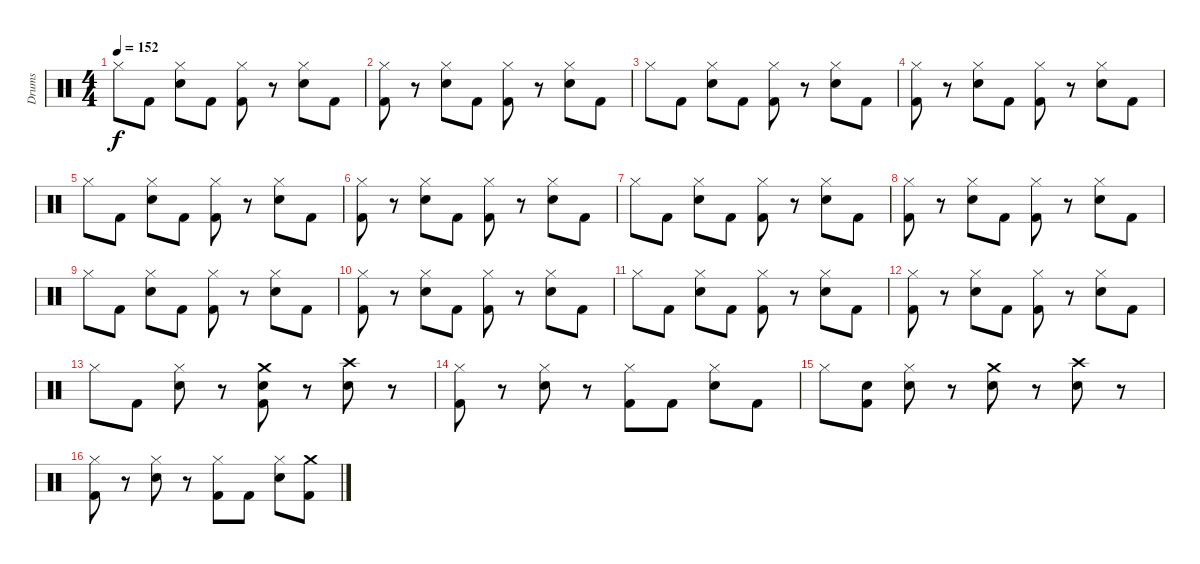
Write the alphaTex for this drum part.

\track ("Drums" "Drums") {instrument percussion}
\staff {score}
\articulation defaults
\ts (4 4)
\tempo 152
\clef neutral
\ks c "Hi-Hat (closed)".8{dy f} "Kick (hit) 2".8
("Electric Snare (hit)" "Hi-Hat (closed)").8 "Kick (hit) 2".8 ("Kick (hit) 2" "Hi-Hat (closed)").8 r.8 ("Electric Snare (hit)" "Hi-Hat (closed)").8 "Kick (hit) 2".8 |
("Kick (hit) 2" "Hi-Hat (closed)").8 r.8 ("Electric Snare (hit)" "Hi-Hat (closed)").8 "Kick (hit) 2".8 ("Kick (hit) 2" "Hi-Hat (closed)").8 r.8 ("Electric Snare (hit)" "Hi-Hat (closed)").8 "Kick (hit) 2".8 |
"Hi-Hat (closed)".8 "Kick (hit) 2".8 ("Electric Snare (hit)" "Hi-Hat (closed)").8 "Kick (hit) 2".8 ("Kick (hit) 2" "Hi-Hat (closed)").8 r.8 ("Electric Snare (hit)" "Hi-Hat (closed)").8 "Kick (hit) 2".8 |
("Kick (hit) 2" "Hi-Hat (closed)").8 r.8 ("Electric Snare (hit)" "Hi-Hat (closed)").8 "Kick (hit) 2".8 ("Kick (hit) 2" "Hi-Hat (closed)").8 r.8 ("Electric Snare (hit)" "Hi-Hat (closed)").8 "Kick (hit) 2".8 |
"Hi-Hat (closed)".8 "Kick (hit) 2".8 ("Electric Snare (hit)" "Hi-Hat (closed)").8 "Kick (hit) 2".8 ("Kick (hit) 2" "Hi-Hat (closed)").8 r.8 ("Electric Snare (hit)" "Hi-Hat (closed)").8 "Kick (hit) 2".8 |
("Kick (hit) 2" "Hi-Hat (closed)").8 r.8 ("Electric Snare (hit)" "Hi-Hat (closed)").8 "Kick (hit) 2".8 ("Kick (hit) 2" "Hi-Hat (closed)").8 r.8 ("Electric Snare (hit)" "Hi-Hat (closed)").8 "Kick (hit) 2".8 |
"Hi-Hat (closed)".8 "Kick (hit) 2".8 ("Electric Snare (hit)" "Hi-Hat (closed)").8 "Kick (hit) 2".8 ("Kick (hit) 2" "Hi-Hat (closed)").8 r.8 ("Electric Snare (hit)" "Hi-Hat (closed)").8 "Kick (hit) 2".8 |
("Kick (hit) 2" "Hi-Hat (closed)").8 r.8 ("Electric Snare (hit)" "Hi-Hat (closed)").8 "Kick (hit) 2".8 ("Kick (hit) 2" "Hi-Hat (closed)").8 r.8 ("Electric Snare (hit)" "Hi-Hat (closed)").8 "Kick (hit) 2".8 |
"Hi-Hat (closed)".8 "Kick (hit) 2".8 ("Electric Snare (hit)" "Hi-Hat (closed)").8 "Kick (hit) 2".8 ("Kick (hit) 2" "Hi-Hat (closed)").8 r.8 ("Electric Snare (hit)" "Hi-Hat (closed)").8 "Kick (hit) 2".8 |
("Kick (hit) 2" "Hi-Hat (closed)").8 r.8 ("Electric Snare (hit)" "Hi-Hat (closed)").8 "Kick (hit) 2".8 ("Kick (hit) 2" "Hi-Hat (closed)").8 r.8 ("Electric Snare (hit)" "Hi-Hat (closed)").8 "Kick (hit) 2".8 |
"Hi-Hat (closed)".8 "Kick (hit) 2".8 ("Electric Snare (hit)" "Hi-Hat (closed)").8 "Kick (hit) 2".8 ("Kick (hit) 2" "Hi-Hat (closed)").8 r.8 ("Electric Snare (hit)" "Hi-Hat (closed)").8 "Kick (hit) 2".8 |
("Kick (hit) 2" "Hi-Hat (closed)").8 r.8 ("Electric Snare (hit)" "Hi-Hat (closed)").8 "Kick (hit) 2".8 ("Kick (hit) 2" "Hi-Hat (closed)").8 r.8 ("Electric Snare (hit)" "Hi-Hat (closed)").8 "Kick (hit) 2".8 |
"Hi-Hat (closed)".8 "Kick (hit) 2".8 ("Electric Snare (hit)" "Hi-Hat (closed)").8 r.8 ("Kick (hit) 2" "Electric Snare (hit)" "Crash medium (hit)").8 r.8 ("Electric Snare (hit)" "Crash high (hit)").8 r.8 |
("Kick (hit) 2" "Hi-Hat (closed)").8 r.8 ("Electric Snare (hit)" "Hi-Hat (closed)").8 r.8 ("Kick (hit) 2" "Hi-Hat (closed)").8 "Kick (hit) 2".8 ("Electric Snare (hit)" "Hi-Hat (closed)").8 "Kick (hit) 2".8 |
"Hi-Hat (closed)".8 ("Kick (hit) 2" "Electric Snare (hit)").8 ("Electric Snare (hit)" "Hi-Hat (closed)").8 r.8 ("Electric Snare (hit)" "Crash medium (hit)").8 r.8 ("Electric Snare (hit)" "Crash high (hit)").8 r.8 |
("Kick (hit) 2" "Hi-Hat (closed)").8 r.8 ("Electric Snare (hit)" "Hi-Hat (closed)").8 r.8 ("Kick (hit) 2" "Hi-Hat (closed)").8 "Kick (hit) 2".8 ("Electric Snare (hit)" "Hi-Hat (closed)").8 ("Kick (hit) 2" "Crash medium (hit)").8
